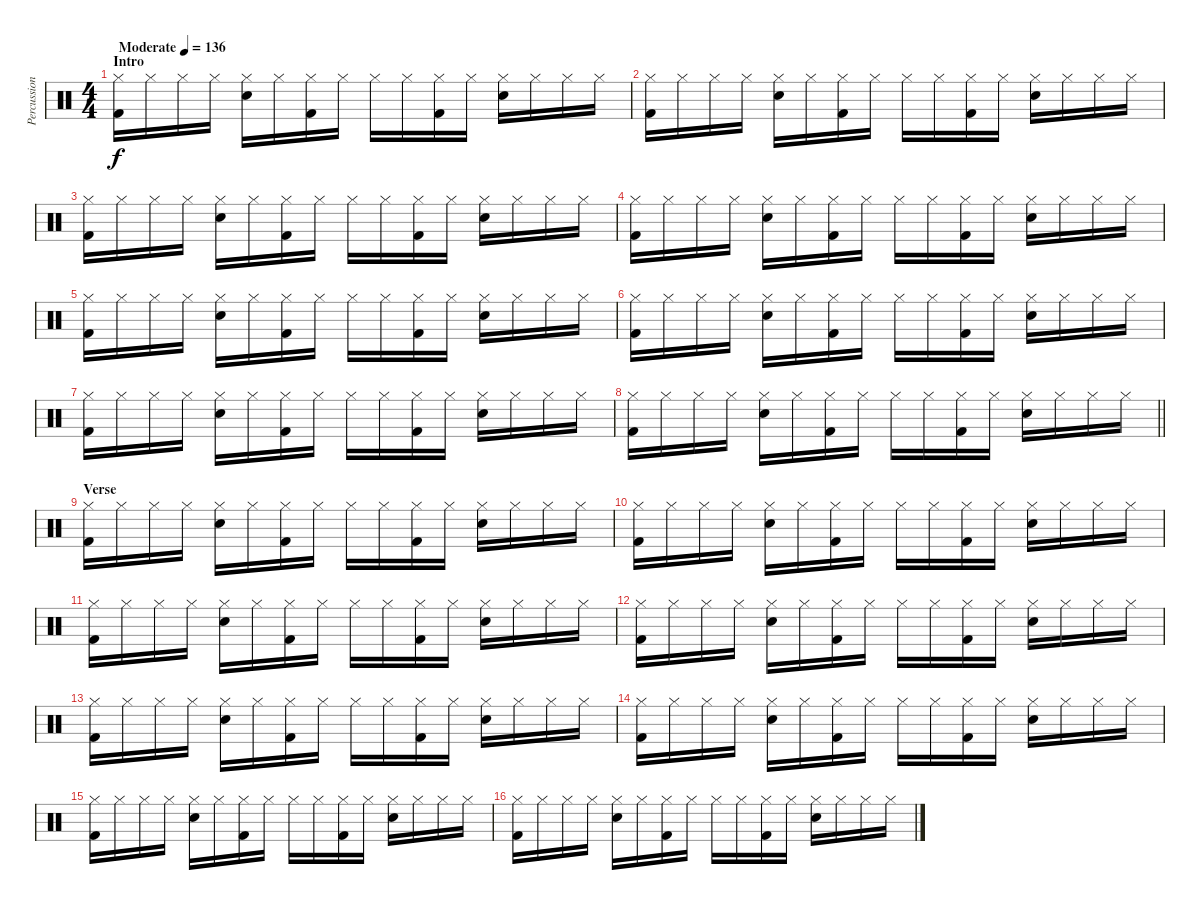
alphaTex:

\track ("Percussion" "Percussion") {instrument percussion}
\staff {score}
\articulation defaults
\ts (4 4)
\section ("" "Intro")
\tempo (136 "Moderate")
\clef neutral
\ks c
("Hi-Hat (closed)" "Kick (hit) 2").16{dy f} "Hi-Hat (closed)".16 "Hi-Hat (closed)".16 "Hi-Hat (closed)".16 ("Hi-Hat (closed)" "Electric Snare (hit)").16 "Hi-Hat (closed)".16 ("Hi-Hat (closed)" "Kick (hit) 2").16 "Hi-Hat (closed)".16 "Hi-Hat (closed)".16 "Hi-Hat (closed)".16 ("Hi-Hat (closed)" "Kick (hit) 2").16 "Hi-Hat (closed)".16 ("Hi-Hat (closed)" "Electric Snare (hit)").16 "Hi-Hat (closed)".16 "Hi-Hat (closed)".16 "Hi-Hat (closed)".16 |
("Hi-Hat (closed)" "Kick (hit) 2").16 "Hi-Hat (closed)".16 "Hi-Hat (closed)".16 "Hi-Hat (closed)".16 ("Hi-Hat (closed)" "Electric Snare (hit)").16 "Hi-Hat (closed)".16 ("Hi-Hat (closed)" "Kick (hit) 2").16 "Hi-Hat (closed)".16 "Hi-Hat (closed)".16 "Hi-Hat (closed)".16 ("Hi-Hat (closed)" "Kick (hit) 2").16 "Hi-Hat (closed)".16 ("Hi-Hat (closed)" "Electric Snare (hit)").16 "Hi-Hat (closed)".16 "Hi-Hat (closed)".16 "Hi-Hat (closed)".16 |
("Hi-Hat (closed)" "Kick (hit) 2").16 "Hi-Hat (closed)".16 "Hi-Hat (closed)".16 "Hi-Hat (closed)".16 ("Hi-Hat (closed)" "Electric Snare (hit)").16 "Hi-Hat (closed)".16 ("Hi-Hat (closed)" "Kick (hit) 2").16 "Hi-Hat (closed)".16 "Hi-Hat (closed)".16 "Hi-Hat (closed)".16 ("Hi-Hat (closed)" "Kick (hit) 2").16 "Hi-Hat (closed)".16 ("Hi-Hat (closed)" "Electric Snare (hit)").16 "Hi-Hat (closed)".16 "Hi-Hat (closed)".16 "Hi-Hat (closed)".16 |
("Hi-Hat (closed)" "Kick (hit) 2").16 "Hi-Hat (closed)".16 "Hi-Hat (closed)".16 "Hi-Hat (closed)".16 ("Hi-Hat (closed)" "Electric Snare (hit)").16 "Hi-Hat (closed)".16 ("Hi-Hat (closed)" "Kick (hit) 2").16 "Hi-Hat (closed)".16 "Hi-Hat (closed)".16 "Hi-Hat (closed)".16 ("Hi-Hat (closed)" "Kick (hit) 2").16 "Hi-Hat (closed)".16 ("Hi-Hat (closed)" "Electric Snare (hit)").16 "Hi-Hat (closed)".16 "Hi-Hat (closed)".16 "Hi-Hat (closed)".16 |
("Hi-Hat (closed)" "Kick (hit) 2").16 "Hi-Hat (closed)".16 "Hi-Hat (closed)".16 "Hi-Hat (closed)".16 ("Hi-Hat (closed)" "Electric Snare (hit)").16 "Hi-Hat (closed)".16 ("Hi-Hat (closed)" "Kick (hit) 2").16 "Hi-Hat (closed)".16 "Hi-Hat (closed)".16 "Hi-Hat (closed)".16 ("Hi-Hat (closed)" "Kick (hit) 2").16 "Hi-Hat (closed)".16 ("Hi-Hat (closed)" "Electric Snare (hit)").16 "Hi-Hat (closed)".16 "Hi-Hat (closed)".16 "Hi-Hat (closed)".16 |
("Hi-Hat (closed)" "Kick (hit) 2").16 "Hi-Hat (closed)".16 "Hi-Hat (closed)".16 "Hi-Hat (closed)".16 ("Hi-Hat (closed)" "Electric Snare (hit)").16 "Hi-Hat (closed)".16 ("Hi-Hat (closed)" "Kick (hit) 2").16 "Hi-Hat (closed)".16 "Hi-Hat (closed)".16 "Hi-Hat (closed)".16 ("Hi-Hat (closed)" "Kick (hit) 2").16 "Hi-Hat (closed)".16 ("Hi-Hat (closed)" "Electric Snare (hit)").16 "Hi-Hat (closed)".16 "Hi-Hat (closed)".16 "Hi-Hat (closed)".16 |
("Hi-Hat (closed)" "Kick (hit) 2").16 "Hi-Hat (closed)".16 "Hi-Hat (closed)".16 "Hi-Hat (closed)".16 ("Hi-Hat (closed)" "Electric Snare (hit)").16 "Hi-Hat (closed)".16 ("Hi-Hat (closed)" "Kick (hit) 2").16 "Hi-Hat (closed)".16 "Hi-Hat (closed)".16 "Hi-Hat (closed)".16 ("Hi-Hat (closed)" "Kick (hit) 2").16 "Hi-Hat (closed)".16 ("Hi-Hat (closed)" "Electric Snare (hit)").16 "Hi-Hat (closed)".16 "Hi-Hat (closed)".16 "Hi-Hat (closed)".16 |
\barLineRight lightlight
("Hi-Hat (closed)" "Kick (hit) 2").16 "Hi-Hat (closed)".16 "Hi-Hat (closed)".16 "Hi-Hat (closed)".16 ("Hi-Hat (closed)" "Electric Snare (hit)").16 "Hi-Hat (closed)".16 ("Hi-Hat (closed)" "Kick (hit) 2").16 "Hi-Hat (closed)".16 "Hi-Hat (closed)".16 "Hi-Hat (closed)".16 ("Hi-Hat (closed)" "Kick (hit) 2").16 "Hi-Hat (closed)".16 ("Hi-Hat (closed)" "Electric Snare (hit)").16 "Hi-Hat (closed)".16 "Hi-Hat (closed)".16 "Hi-Hat (closed)".16 |
\section ("" "Verse")
("Hi-Hat (closed)" "Kick (hit) 2").16 "Hi-Hat (closed)".16 "Hi-Hat (closed)".16 "Hi-Hat (closed)".16 ("Hi-Hat (closed)" "Electric Snare (hit)").16 "Hi-Hat (closed)".16 ("Hi-Hat (closed)" "Kick (hit) 2").16 "Hi-Hat (closed)".16 "Hi-Hat (closed)".16 "Hi-Hat (closed)".16 ("Hi-Hat (closed)" "Kick (hit) 2").16 "Hi-Hat (closed)".16 ("Hi-Hat (closed)" "Electric Snare (hit)").16 "Hi-Hat (closed)".16 "Hi-Hat (closed)".16 "Hi-Hat (closed)".16 |
("Hi-Hat (closed)" "Kick (hit) 2").16 "Hi-Hat (closed)".16 "Hi-Hat (closed)".16 "Hi-Hat (closed)".16 ("Hi-Hat (closed)" "Electric Snare (hit)").16 "Hi-Hat (closed)".16 ("Hi-Hat (closed)" "Kick (hit) 2").16 "Hi-Hat (closed)".16 "Hi-Hat (closed)".16 "Hi-Hat (closed)".16 ("Hi-Hat (closed)" "Kick (hit) 2").16 "Hi-Hat (closed)".16 ("Hi-Hat (closed)" "Electric Snare (hit)").16 "Hi-Hat (closed)".16 "Hi-Hat (closed)".16 "Hi-Hat (closed)".16 |
("Hi-Hat (closed)" "Kick (hit) 2").16 "Hi-Hat (closed)".16 "Hi-Hat (closed)".16 "Hi-Hat (closed)".16 ("Hi-Hat (closed)" "Electric Snare (hit)").16 "Hi-Hat (closed)".16 ("Hi-Hat (closed)" "Kick (hit) 2").16 "Hi-Hat (closed)".16 "Hi-Hat (closed)".16 "Hi-Hat (closed)".16 ("Hi-Hat (closed)" "Kick (hit) 2").16 "Hi-Hat (closed)".16 ("Hi-Hat (closed)" "Electric Snare (hit)").16 "Hi-Hat (closed)".16 "Hi-Hat (closed)".16 "Hi-Hat (closed)".16 |
("Hi-Hat (closed)" "Kick (hit) 2").16 "Hi-Hat (closed)".16 "Hi-Hat (closed)".16 "Hi-Hat (closed)".16 ("Hi-Hat (closed)" "Electric Snare (hit)").16 "Hi-Hat (closed)".16 ("Hi-Hat (closed)" "Kick (hit) 2").16 "Hi-Hat (closed)".16 "Hi-Hat (closed)".16 "Hi-Hat (closed)".16 ("Hi-Hat (closed)" "Kick (hit) 2").16 "Hi-Hat (closed)".16 ("Hi-Hat (closed)" "Electric Snare (hit)").16 "Hi-Hat (closed)".16 "Hi-Hat (closed)".16 "Hi-Hat (closed)".16 |
("Hi-Hat (closed)" "Kick (hit) 2").16 "Hi-Hat (closed)".16 "Hi-Hat (closed)".16 "Hi-Hat (closed)".16 ("Hi-Hat (closed)" "Electric Snare (hit)").16 "Hi-Hat (closed)".16 ("Hi-Hat (closed)" "Kick (hit) 2").16 "Hi-Hat (closed)".16 "Hi-Hat (closed)".16 "Hi-Hat (closed)".16 ("Hi-Hat (closed)" "Kick (hit) 2").16 "Hi-Hat (closed)".16 ("Hi-Hat (closed)" "Electric Snare (hit)").16 "Hi-Hat (closed)".16 "Hi-Hat (closed)".16 "Hi-Hat (closed)".16 |
("Hi-Hat (closed)" "Kick (hit) 2").16 "Hi-Hat (closed)".16 "Hi-Hat (closed)".16 "Hi-Hat (closed)".16 ("Hi-Hat (closed)" "Electric Snare (hit)").16 "Hi-Hat (closed)".16 ("Hi-Hat (closed)" "Kick (hit) 2").16 "Hi-Hat (closed)".16 "Hi-Hat (closed)".16 "Hi-Hat (closed)".16 ("Hi-Hat (closed)" "Kick (hit) 2").16 "Hi-Hat (closed)".16 ("Hi-Hat (closed)" "Electric Snare (hit)").16 "Hi-Hat (closed)".16 "Hi-Hat (closed)".16 "Hi-Hat (closed)".16 |
("Hi-Hat (closed)" "Kick (hit) 2").16 "Hi-Hat (closed)".16 "Hi-Hat (closed)".16 "Hi-Hat (closed)".16 ("Hi-Hat (closed)" "Electric Snare (hit)").16 "Hi-Hat (closed)".16 ("Hi-Hat (closed)" "Kick (hit) 2").16 "Hi-Hat (closed)".16 "Hi-Hat (closed)".16 "Hi-Hat (closed)".16 ("Hi-Hat (closed)" "Kick (hit) 2").16 "Hi-Hat (closed)".16 ("Hi-Hat (closed)" "Electric Snare (hit)").16 "Hi-Hat (closed)".16 "Hi-Hat (closed)".16 "Hi-Hat (closed)".16 |
("Hi-Hat (closed)" "Kick (hit) 2").16 "Hi-Hat (closed)".16 "Hi-Hat (closed)".16 "Hi-Hat (closed)".16 ("Hi-Hat (closed)" "Electric Snare (hit)").16 "Hi-Hat (closed)".16 ("Hi-Hat (closed)" "Kick (hit) 2").16 "Hi-Hat (closed)".16 "Hi-Hat (closed)".16 "Hi-Hat (closed)".16 ("Hi-Hat (closed)" "Kick (hit) 2").16 "Hi-Hat (closed)".16 ("Hi-Hat (closed)" "Electric Snare (hit)").16 "Hi-Hat (closed)".16 "Hi-Hat (closed)".16 "Hi-Hat (closed)".16
